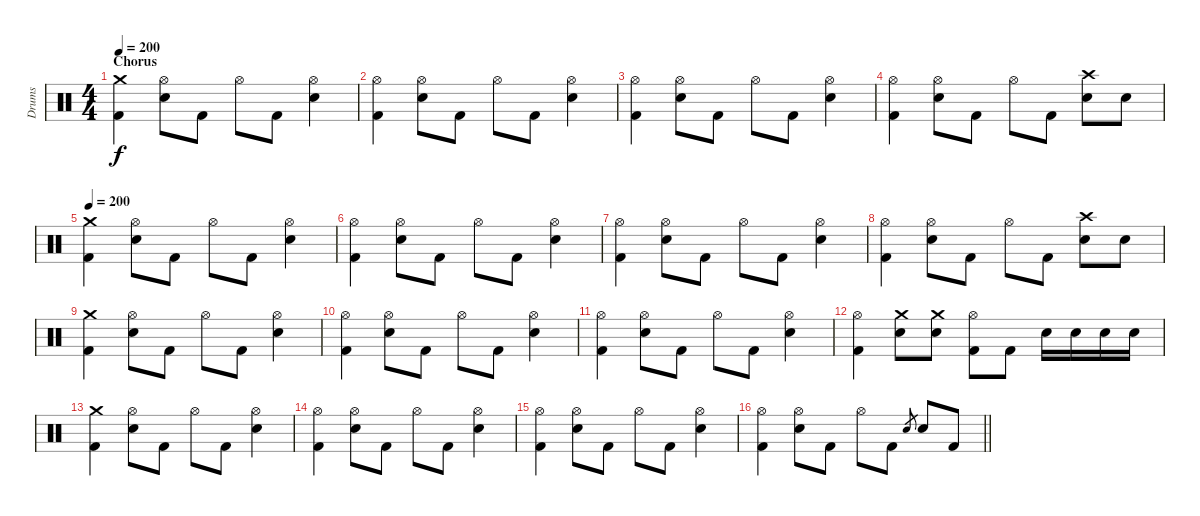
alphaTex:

\track ("Drums" "Drums") {instrument percussion}
\staff {score}
\articulation defaults
\ts (4 4)
\section ("" "Chorus")
\tempo 200
\clef neutral
\ks c
("Crash medium (hit)" "Kick (hit) 2").4{dy f} ("Hi-Hat (open)" "Electric Snare (hit)").8 "Kick (hit) 2".8 "Hi-Hat (open)".8 "Kick (hit) 2".8 ("Hi-Hat (open)" "Electric Snare (hit)").4 |
("Hi-Hat (open)" "Kick (hit) 2").4 ("Hi-Hat (open)" "Electric Snare (hit)").8 "Kick (hit) 2".8 "Hi-Hat (open)".8 "Kick (hit) 2".8 ("Hi-Hat (open)" "Electric Snare (hit)").4 |
("Hi-Hat (open)" "Kick (hit) 2").4 ("Hi-Hat (open)" "Electric Snare (hit)").8 "Kick (hit) 2".8 "Hi-Hat (open)".8 "Kick (hit) 2".8 ("Hi-Hat (open)" "Electric Snare (hit)").4 |
("Hi-Hat (open)" "Kick (hit) 2").4 ("Hi-Hat (open)" "Electric Snare (hit)").8 "Kick (hit) 2".8 "Hi-Hat (open)".8 "Kick (hit) 2".8 ("Crash high (hit)" "Electric Snare (hit)").8 "Electric Snare (hit)".8 |
\tempo 200
("Crash medium (hit)" "Kick (hit) 2").4 ("Hi-Hat (open)" "Electric Snare (hit)").8 "Kick (hit) 2".8 "Hi-Hat (open)".8 "Kick (hit) 2".8 ("Hi-Hat (open)" "Electric Snare (hit)").4 |
("Hi-Hat (open)" "Kick (hit) 2").4 ("Hi-Hat (open)" "Electric Snare (hit)").8 "Kick (hit) 2".8 "Hi-Hat (open)".8 "Kick (hit) 2".8 ("Hi-Hat (open)" "Electric Snare (hit)").4 |
("Hi-Hat (open)" "Kick (hit) 2").4 ("Hi-Hat (open)" "Electric Snare (hit)").8 "Kick (hit) 2".8 "Hi-Hat (open)".8 "Kick (hit) 2".8 ("Hi-Hat (open)" "Electric Snare (hit)").4 |
("Hi-Hat (open)" "Kick (hit) 2").4 ("Hi-Hat (open)" "Electric Snare (hit)").8 "Kick (hit) 2".8 "Hi-Hat (open)".8 "Kick (hit) 2".8 ("Crash high (hit)" "Electric Snare (hit)").8 "Electric Snare (hit)".8 |
("Crash medium (hit)" "Kick (hit) 2").4 ("Hi-Hat (open)" "Electric Snare (hit)").8 "Kick (hit) 2".8 "Hi-Hat (open)".8 "Kick (hit) 2".8 ("Hi-Hat (open)" "Electric Snare (hit)").4 |
("Hi-Hat (open)" "Kick (hit) 2").4 ("Hi-Hat (open)" "Electric Snare (hit)").8 "Kick (hit) 2".8 "Hi-Hat (open)".8 "Kick (hit) 2".8 ("Hi-Hat (open)" "Electric Snare (hit)").4 |
("Hi-Hat (open)" "Kick (hit) 2").4 ("Hi-Hat (open)" "Electric Snare (hit)").8 "Kick (hit) 2".8 "Hi-Hat (open)".8 "Kick (hit) 2".8 ("Hi-Hat (open)" "Electric Snare (hit)").4 |
("Hi-Hat (open)" "Kick (hit) 2").4 ("Crash medium (hit)" "Electric Snare (hit)").8 ("Crash medium (hit)" "Electric Snare (hit)").8 ("Hi-Hat (open)" "Kick (hit) 2").8 "Kick (hit) 2".8 "Electric Snare (hit)".16 "Electric Snare (hit)".16 "Electric Snare (hit)".16 "Electric Snare (hit)".16 |
("Crash medium (hit)" "Kick (hit) 2").4 ("Hi-Hat (open)" "Electric Snare (hit)").8 "Kick (hit) 2".8 "Hi-Hat (open)".8 "Kick (hit) 2".8 ("Hi-Hat (open)" "Electric Snare (hit)").4 |
("Hi-Hat (open)" "Kick (hit) 2").4 ("Hi-Hat (open)" "Electric Snare (hit)").8 "Kick (hit) 2".8 "Hi-Hat (open)".8 "Kick (hit) 2".8 ("Hi-Hat (open)" "Electric Snare (hit)").4 |
("Hi-Hat (open)" "Kick (hit) 2").4 ("Hi-Hat (open)" "Electric Snare (hit)").8 "Kick (hit) 2".8 "Hi-Hat (open)".8 "Kick (hit) 2".8 ("Hi-Hat (open)" "Electric Snare (hit)").4 |
\barLineRight lightlight
("Hi-Hat (open)" "Kick (hit) 2").4 ("Hi-Hat (open)" "Electric Snare (hit)").8 "Kick (hit) 2".8 "Hi-Hat (open)".8 "Kick (hit) 2".8 "Electric Snare (hit)".8{gr} "Electric Snare (hit)".8 "Kick (hit) 2".8
